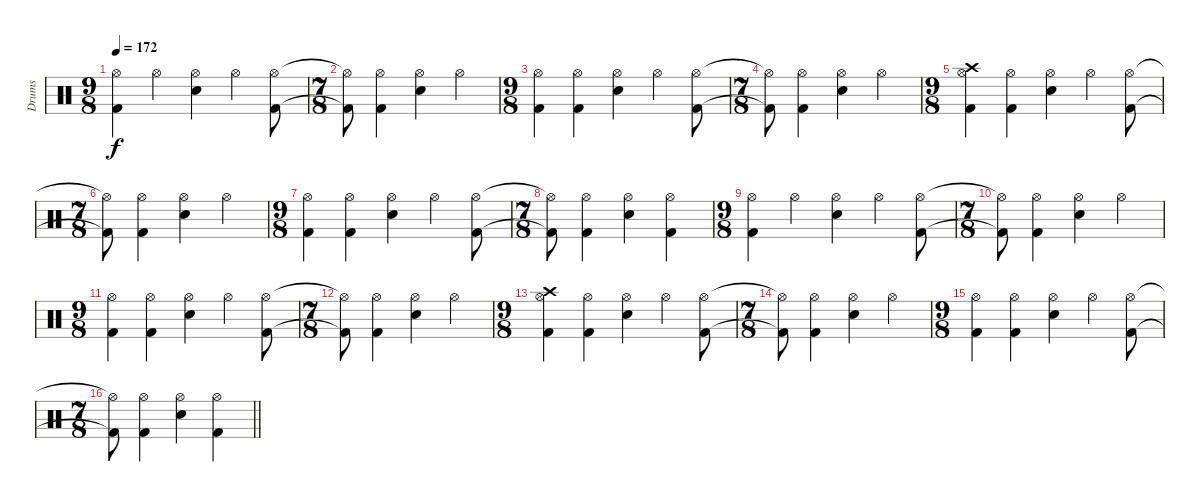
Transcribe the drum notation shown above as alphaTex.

\track ("Drums" "Drums") {instrument percussion}
\staff {score}
\articulation defaults
\ts (9 8)
\tempo 172
\clef neutral
\ks c
("Kick (hit) 2" "Hi-Hat (open)").4{dy f} "Hi-Hat (open)".4 ("Electric Snare (hit)" "Hi-Hat (open)").4 "Hi-Hat (open)".4 ("Hi-Hat (open)" "Kick (hit) 2").8 |
\ts (7 8)
("Hi-Hat (open)"{t} "Kick (hit) 2"{t}).8 ("Kick (hit) 2" "Hi-Hat (open)").4 ("Electric Snare (hit)" "Hi-Hat (open)").4 "Hi-Hat (open)".4 |
\ts (9 8)
("Kick (hit) 2" "Hi-Hat (open)").4 ("Kick (hit) 2" "Hi-Hat (open)").4 ("Electric Snare (hit)" "Hi-Hat (open)").4 "Hi-Hat (open)".4 ("Hi-Hat (open)" "Kick (hit) 2").8 |
\ts (7 8)
("Hi-Hat (open)"{t} "Kick (hit) 2"{t}).8 ("Kick (hit) 2" "Hi-Hat (open)").4 ("Electric Snare (hit)" "Hi-Hat (open)").4 "Hi-Hat (open)".4 |
\ts (9 8)
("Kick (hit) 2" "Hi-Hat (open)" "Crash high (hit)").4 ("Kick (hit) 2" "Hi-Hat (open)").4 ("Electric Snare (hit)" "Hi-Hat (open)").4 "Hi-Hat (open)".4 ("Hi-Hat (open)" "Kick (hit) 2").8 |
\ts (7 8)
("Hi-Hat (open)"{t} "Kick (hit) 2"{t}).8 ("Kick (hit) 2" "Hi-Hat (open)").4 ("Electric Snare (hit)" "Hi-Hat (open)").4 "Hi-Hat (open)".4 |
\ts (9 8)
("Kick (hit) 2" "Hi-Hat (open)").4 ("Kick (hit) 2" "Hi-Hat (open)").4 ("Electric Snare (hit)" "Hi-Hat (open)").4 "Hi-Hat (open)".4 ("Hi-Hat (open)" "Kick (hit) 2").8 |
\ts (7 8)
("Hi-Hat (open)"{t} "Kick (hit) 2"{t}).8 ("Kick (hit) 2" "Hi-Hat (open)").4 ("Electric Snare (hit)" "Hi-Hat (open)").4 ("Hi-Hat (open)" "Kick (hit) 2").4 |
\ts (9 8)
("Kick (hit) 2" "Hi-Hat (open)").4 "Hi-Hat (open)".4 ("Electric Snare (hit)" "Hi-Hat (open)").4 "Hi-Hat (open)".4 ("Hi-Hat (open)" "Kick (hit) 2").8 |
\ts (7 8)
("Hi-Hat (open)"{t} "Kick (hit) 2"{t}).8 ("Kick (hit) 2" "Hi-Hat (open)").4 ("Electric Snare (hit)" "Hi-Hat (open)").4 "Hi-Hat (open)".4 |
\ts (9 8)
("Kick (hit) 2" "Hi-Hat (open)").4 ("Kick (hit) 2" "Hi-Hat (open)").4 ("Electric Snare (hit)" "Hi-Hat (open)").4 "Hi-Hat (open)".4 ("Hi-Hat (open)" "Kick (hit) 2").8 |
\ts (7 8)
("Hi-Hat (open)"{t} "Kick (hit) 2"{t}).8 ("Kick (hit) 2" "Hi-Hat (open)").4 ("Electric Snare (hit)" "Hi-Hat (open)").4 "Hi-Hat (open)".4 |
\ts (9 8)
("Kick (hit) 2" "Hi-Hat (open)" "Crash high (hit)").4 ("Kick (hit) 2" "Hi-Hat (open)").4 ("Electric Snare (hit)" "Hi-Hat (open)").4 "Hi-Hat (open)".4 ("Hi-Hat (open)" "Kick (hit) 2").8 |
\ts (7 8)
("Hi-Hat (open)"{t} "Kick (hit) 2"{t}).8 ("Kick (hit) 2" "Hi-Hat (open)").4 ("Electric Snare (hit)" "Hi-Hat (open)").4 "Hi-Hat (open)".4 |
\ts (9 8)
("Kick (hit) 2" "Hi-Hat (open)").4 ("Kick (hit) 2" "Hi-Hat (open)").4 ("Electric Snare (hit)" "Hi-Hat (open)").4 "Hi-Hat (open)".4 ("Hi-Hat (open)" "Kick (hit) 2").8 |
\ts (7 8)
\barLineRight lightlight
("Hi-Hat (open)"{t} "Kick (hit) 2"{t}).8 ("Kick (hit) 2" "Hi-Hat (open)").4 ("Electric Snare (hit)" "Hi-Hat (open)").4 ("Hi-Hat (open)" "Kick (hit) 2").4
